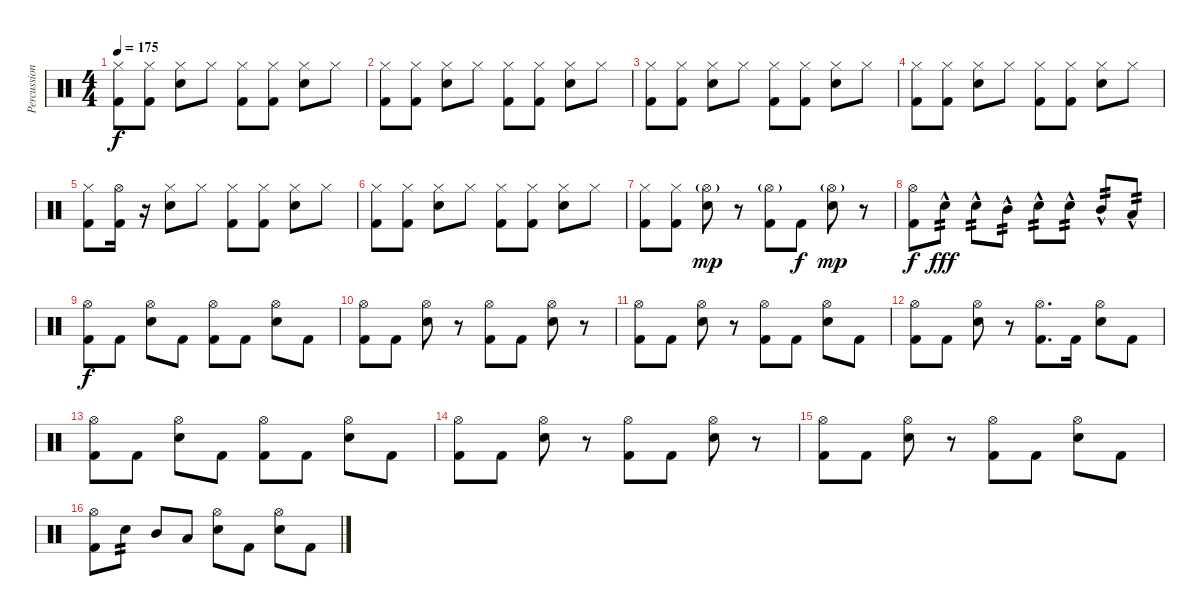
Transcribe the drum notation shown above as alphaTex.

\track ("Percussion" "Percussion") {instrument percussion bank 177}
\staff {score}
\articulation defaults
\ts (4 4)
\tempo 175
\clef neutral
\ks c
("Hi-Hat (closed)" "Kick (hit) 2").8{dy f} ("Hi-Hat (closed)" "Kick (hit) 2").8 ("Hi-Hat (closed)" "Electric Snare (hit)").8 "Hi-Hat (closed)".8 ("Hi-Hat (closed)" "Kick (hit) 2").8 ("Hi-Hat (closed)" "Kick (hit) 2").8 ("Hi-Hat (closed)" "Electric Snare (hit)").8 "Hi-Hat (closed)".8 |
("Hi-Hat (closed)" "Kick (hit) 2").8 ("Hi-Hat (closed)" "Kick (hit) 2").8 ("Hi-Hat (closed)" "Electric Snare (hit)").8 "Hi-Hat (closed)".8 ("Hi-Hat (closed)" "Kick (hit) 2").8 ("Hi-Hat (closed)" "Kick (hit) 2").8 ("Hi-Hat (closed)" "Electric Snare (hit)").8 "Hi-Hat (closed)".8 |
("Hi-Hat (closed)" "Kick (hit) 2").8 ("Hi-Hat (closed)" "Kick (hit) 2").8 ("Hi-Hat (closed)" "Electric Snare (hit)").8 "Hi-Hat (closed)".8 ("Hi-Hat (closed)" "Kick (hit) 2").8 ("Hi-Hat (closed)" "Kick (hit) 2").8 ("Hi-Hat (closed)" "Electric Snare (hit)").8 "Hi-Hat (closed)".8 |
("Hi-Hat (closed)" "Kick (hit) 2").8 ("Hi-Hat (closed)" "Kick (hit) 2").8 ("Hi-Hat (closed)" "Electric Snare (hit)").8 "Hi-Hat (closed)".8 ("Hi-Hat (closed)" "Kick (hit) 2").8 ("Hi-Hat (closed)" "Kick (hit) 2").8 ("Hi-Hat (closed)" "Electric Snare (hit)").8 "Hi-Hat (closed)".8 |
("Hi-Hat (closed)" "Kick (hit) 2").8 ("Hi-Hat (open)" "Kick (hit) 2").16 r.16 ("Hi-Hat (closed)" "Electric Snare (hit)").8 "Hi-Hat (closed)".8 ("Hi-Hat (closed)" "Kick (hit) 2").8 ("Hi-Hat (closed)" "Kick (hit) 2").8 ("Hi-Hat (closed)" "Electric Snare (hit)").8 "Hi-Hat (closed)".8 |
("Hi-Hat (closed)" "Kick (hit) 2").8 ("Hi-Hat (closed)" "Kick (hit) 2").8 ("Hi-Hat (closed)" "Electric Snare (hit)").8 "Hi-Hat (closed)".8 ("Hi-Hat (closed)" "Kick (hit) 2").8 ("Hi-Hat (closed)" "Kick (hit) 2").8 ("Hi-Hat (closed)" "Electric Snare (hit)").8 "Hi-Hat (closed)".8 |
("Hi-Hat (closed)" "Kick (hit) 2").8 ("Hi-Hat (closed)" "Kick (hit) 2").8 ("Hi-Hat (open)"{g} "Electric Snare (hit)").8{dy mp} r.8 ("Hi-Hat (open)"{g} "Kick (hit) 2").8 "Kick (hit) 2".8{dy f} ("Hi-Hat (open)"{g} "Electric Snare (hit)").8{dy mp} r.8 |
("Hi-Hat (open)" "Kick (hit) 2").8{dy f} "Electric Snare (hit)"{hac}.8{tp 2 dy fff} "Electric Snare (hit)"{hac}.8{tp 2} "Mid Tom (hit)"{hac}.8{tp 2} "Electric Snare (hit)"{hac}.8{tp 2} "Electric Snare (hit)"{hac}.8{tp 2} "Mid Tom (hit)"{hac}.8{tp 2} "Low Tom (hit)"{hac}.8{tp 2} |
("Hi-Hat (open)" "Kick (hit) 2").8{dy f} "Kick (hit) 2".8 ("Hi-Hat (open)" "Electric Snare (hit)").8 "Kick (hit) 2".8 ("Hi-Hat (open)" "Kick (hit) 2").8 "Kick (hit) 2".8 ("Hi-Hat (open)" "Electric Snare (hit)").8 "Kick (hit) 2".8 |
("Hi-Hat (open)" "Kick (hit) 2").8 "Kick (hit) 2".8 ("Hi-Hat (open)" "Electric Snare (hit)").8 r.8 ("Hi-Hat (open)" "Kick (hit) 2").8 "Kick (hit) 2".8 ("Hi-Hat (open)" "Electric Snare (hit)").8 r.8 |
("Hi-Hat (open)" "Kick (hit) 2").8 "Kick (hit) 2".8 ("Hi-Hat (open)" "Electric Snare (hit)").8 r.8 ("Hi-Hat (open)" "Kick (hit) 2").8 "Kick (hit) 2".8 ("Hi-Hat (open)" "Electric Snare (hit)").8 "Kick (hit) 2".8 |
("Hi-Hat (open)" "Kick (hit) 2").8 "Kick (hit) 2".8 ("Hi-Hat (open)" "Electric Snare (hit)").8 r.8 ("Hi-Hat (open)" "Kick (hit) 2").8{d} "Kick (hit) 2".16 ("Hi-Hat (open)" "Electric Snare (hit)").8 "Kick (hit) 2".8 |
("Hi-Hat (open)" "Kick (hit) 2").8 "Kick (hit) 2".8 ("Hi-Hat (open)" "Electric Snare (hit)").8 "Kick (hit) 2".8 ("Hi-Hat (open)" "Kick (hit) 2").8 "Kick (hit) 2".8 ("Hi-Hat (open)" "Electric Snare (hit)").8 "Kick (hit) 2".8 |
("Hi-Hat (open)" "Kick (hit) 2").8 "Kick (hit) 2".8 ("Hi-Hat (open)" "Electric Snare (hit)").8 r.8 ("Hi-Hat (open)" "Kick (hit) 2").8 "Kick (hit) 2".8 ("Hi-Hat (open)" "Electric Snare (hit)").8 r.8 |
("Hi-Hat (open)" "Kick (hit) 2").8 "Kick (hit) 2".8 ("Hi-Hat (open)" "Electric Snare (hit)").8 r.8 ("Hi-Hat (open)" "Kick (hit) 2").8 "Kick (hit) 2".8 ("Hi-Hat (open)" "Electric Snare (hit)").8 "Kick (hit) 2".8 |
("Hi-Hat (open)" "Kick (hit) 2").8 "Electric Snare (hit)".8{tp 2} "Mid Tom (hit)".8 "Low Tom (hit)".8 ("Hi-Hat (open)" "Electric Snare (hit)").8 "Kick (hit) 2".8 ("Hi-Hat (open)" "Electric Snare (hit)").8 "Kick (hit) 2".8
